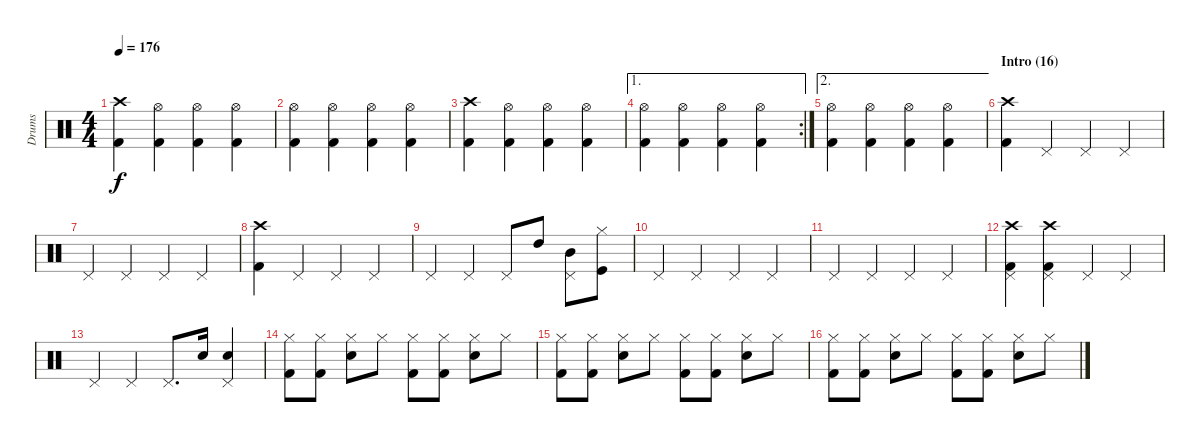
\track ("Drums" "Drums") {instrument percussion}
\staff {score}
\articulation defaults
\ts (4 4)
\tempo 176
\clef neutral
\ks c
("Crash high (hit)" "Kick (hit) 2").4{dy f} ("Hi-Hat (open)" "Kick (hit) 2").4 ("Hi-Hat (open)" "Kick (hit) 2").4 ("Hi-Hat (open)" "Kick (hit) 2").4 |
("Hi-Hat (open)" "Kick (hit) 2").4 ("Hi-Hat (open)" "Kick (hit) 2").4 ("Hi-Hat (open)" "Kick (hit) 2").4 ("Hi-Hat (open)" "Kick (hit) 2").4 |
("Crash high (hit)" "Kick (hit) 2").4 ("Hi-Hat (open)" "Kick (hit) 2").4 ("Hi-Hat (open)" "Kick (hit) 2").4 ("Hi-Hat (open)" "Kick (hit) 2").4 |
\ae 1
\rc 2
("Hi-Hat (open)" "Kick (hit) 2").4 ("Hi-Hat (open)" "Kick (hit) 2").4 ("Hi-Hat (open)" "Kick (hit) 2").4 ("Hi-Hat (open)" "Kick (hit) 2").4 |
\ae 2
("Hi-Hat (open)" "Kick (hit) 2").4 ("Hi-Hat (open)" "Kick (hit) 2").4 ("Hi-Hat (open)" "Kick (hit) 2").4 ("Hi-Hat (open)" "Kick (hit) 2").4 |
\section ("" "Intro (16)")
("Crash high (hit)" "Kick (hit) 2").4 "Pedal Hi-Hat (hit)".4 "Pedal Hi-Hat (hit)".4 "Pedal Hi-Hat (hit)".4 |
"Pedal Hi-Hat (hit)".4 "Pedal Hi-Hat (hit)".4 "Pedal Hi-Hat (hit)".4 "Pedal Hi-Hat (hit)".4 |
("Crash high (hit)" "Kick (hit) 2").4 "Pedal Hi-Hat (hit)".4 "Pedal Hi-Hat (hit)".4 "Pedal Hi-Hat (hit)".4 |
"Pedal Hi-Hat (hit)".4 "Pedal Hi-Hat (hit)".4 "Pedal Hi-Hat (hit)".8 "High Tom (hit)".8 ("Mid Tom (hit)" "Pedal Hi-Hat (hit)").8 ("Hi-Hat (closed)" "Kick (hit)").8 |
"Pedal Hi-Hat (hit)".4 "Pedal Hi-Hat (hit)".4 "Pedal Hi-Hat (hit)".4 "Pedal Hi-Hat (hit)".4 |
"Pedal Hi-Hat (hit)".4 "Pedal Hi-Hat (hit)".4 "Pedal Hi-Hat (hit)".4 "Pedal Hi-Hat (hit)".4 |
("Crash high (hit)" "Kick (hit) 2" "Pedal Hi-Hat (hit)").4 ("Crash high (hit)" "Kick (hit) 2" "Pedal Hi-Hat (hit)").4 "Pedal Hi-Hat (hit)".4 "Pedal Hi-Hat (hit)".4 |
"Pedal Hi-Hat (hit)".4 "Pedal Hi-Hat (hit)".4 "Pedal Hi-Hat (hit)".8{d} "Snare (hit) 2".16 ("Snare (hit) 2" "Pedal Hi-Hat (hit)").4 |
("Hi-Hat (closed)" "Kick (hit) 2").8 ("Hi-Hat (closed)" "Kick (hit) 2").8 ("Hi-Hat (closed)" "Snare (hit) 2").8 "Hi-Hat (closed)".8 ("Hi-Hat (closed)" "Kick (hit) 2").8 ("Hi-Hat (closed)" "Kick (hit) 2").8 ("Hi-Hat (closed)" "Snare (hit) 2").8 "Hi-Hat (closed)".8 |
("Hi-Hat (closed)" "Kick (hit) 2").8 ("Hi-Hat (closed)" "Kick (hit) 2").8 ("Hi-Hat (closed)" "Snare (hit) 2").8 "Hi-Hat (closed)".8 ("Hi-Hat (closed)" "Kick (hit) 2").8 ("Hi-Hat (closed)" "Kick (hit) 2").8 ("Hi-Hat (closed)" "Snare (hit) 2").8 "Hi-Hat (closed)".8 |
("Hi-Hat (closed)" "Kick (hit) 2").8 ("Hi-Hat (closed)" "Kick (hit) 2").8 ("Hi-Hat (closed)" "Snare (hit) 2").8 "Hi-Hat (closed)".8 ("Hi-Hat (closed)" "Kick (hit) 2").8 ("Hi-Hat (closed)" "Kick (hit) 2").8 ("Hi-Hat (closed)" "Snare (hit) 2").8 "Hi-Hat (closed)".8
